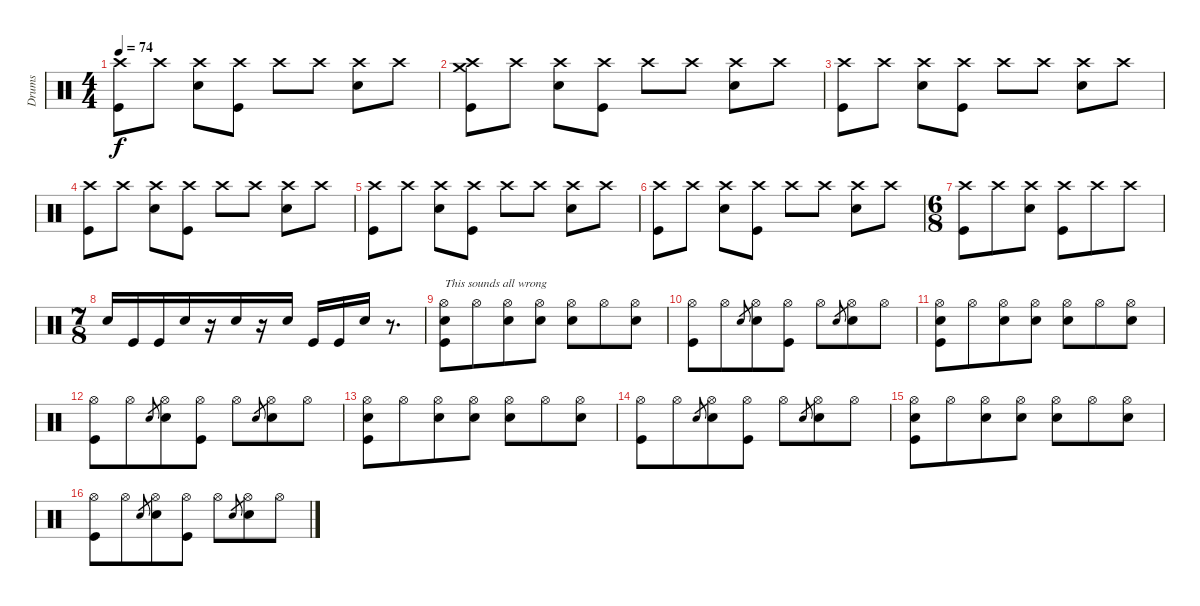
\track ("Drums" "Drums") {instrument percussion}
\staff {score}
\articulation defaults
\ts (4 4)
\tempo 74
\clef neutral
\ks c
("Crash high (hit)" "Kick (hit)").8{dy f} "Crash high (hit)".8 ("Crash high (hit)" "Snare (hit) 2").8 ("Crash high (hit)" "Kick (hit)").8 "Crash high (hit)".8 "Crash high (hit)".8 ("Crash high (hit)" "Snare (hit) 2").8 "Crash high (hit)".8 |
("Crash high (hit)" "Crash medium (hit)" "Kick (hit)").8 "Crash high (hit)".8 ("Crash high (hit)" "Snare (hit) 2").8 ("Crash high (hit)" "Kick (hit)").8 "Crash high (hit)".8 "Crash high (hit)".8 ("Crash high (hit)" "Snare (hit) 2").8 "Crash high (hit)".8 |
("Crash high (hit)" "Kick (hit)").8 "Crash high (hit)".8 ("Crash high (hit)" "Snare (hit) 2").8 ("Crash high (hit)" "Kick (hit)").8 "Crash high (hit)".8 "Crash high (hit)".8 ("Crash high (hit)" "Snare (hit) 2").8 "Crash high (hit)".8 |
("Crash high (hit)" "Kick (hit)").8 "Crash high (hit)".8 ("Crash high (hit)" "Snare (hit) 2").8 ("Crash high (hit)" "Kick (hit)").8 "Crash high (hit)".8 "Crash high (hit)".8 ("Crash high (hit)" "Snare (hit) 2").8 "Crash high (hit)".8 |
("Crash high (hit)" "Kick (hit)").8 "Crash high (hit)".8 ("Crash high (hit)" "Snare (hit) 2").8 ("Crash high (hit)" "Kick (hit)").8 "Crash high (hit)".8 "Crash high (hit)".8 ("Crash high (hit)" "Snare (hit) 2").8 "Crash high (hit)".8 |
("Crash high (hit)" "Kick (hit)").8 "Crash high (hit)".8 ("Crash high (hit)" "Snare (hit) 2").8 ("Crash high (hit)" "Kick (hit)").8 "Crash high (hit)".8 "Crash high (hit)".8 ("Crash high (hit)" "Snare (hit) 2").8 "Crash high (hit)".8 |
\ts (6 8)
("Crash high (hit)" "Kick (hit)").8 "Crash high (hit)".8 ("Crash high (hit)" "Snare (hit) 2").8 ("Crash high (hit)" "Kick (hit)").8 "Crash high (hit)".8 "Crash high (hit)".8 |
\ts (7 8)
"Snare (hit) 2".16 "Kick (hit)".16 "Kick (hit)".16 "Snare (hit) 2".16 r.16 "Snare (hit) 2".16 r.16 "Snare (hit) 2".16 "Kick (hit)".16 "Kick (hit)".16 "Snare (hit) 2".16 r.8{d} |
("Hi-Hat (open)" "Snare (hit) 2" "Kick (hit)").8{txt "This sounds all wrong"} "Hi-Hat (open)".8 ("Hi-Hat (open)" "Snare (hit) 2").8 ("Hi-Hat (open)" "Snare (hit) 2").8 ("Hi-Hat (open)" "Snare (hit) 2").8 "Hi-Hat (open)".8 ("Hi-Hat (open)" "Snare (hit) 2").8 |
("Hi-Hat (open)" "Kick (hit)").8 "Hi-Hat (open)".8 "Snare (hit) 2".8{gr} ("Hi-Hat (open)" "Snare (hit) 2").8 ("Hi-Hat (open)" "Kick (hit)").8 "Hi-Hat (open)".8 "Snare (hit) 2".8{gr} ("Hi-Hat (open)" "Snare (hit) 2").8 "Hi-Hat (open)".8 |
("Hi-Hat (open)" "Snare (hit) 2" "Kick (hit)").8 "Hi-Hat (open)".8 ("Hi-Hat (open)" "Snare (hit) 2").8 ("Hi-Hat (open)" "Snare (hit) 2").8 ("Hi-Hat (open)" "Snare (hit) 2").8 "Hi-Hat (open)".8 ("Hi-Hat (open)" "Snare (hit) 2").8 |
("Hi-Hat (open)" "Kick (hit)").8 "Hi-Hat (open)".8 "Snare (hit) 2".8{gr} ("Hi-Hat (open)" "Snare (hit) 2").8 ("Hi-Hat (open)" "Kick (hit)").8 "Hi-Hat (open)".8 "Snare (hit) 2".8{gr} ("Hi-Hat (open)" "Snare (hit) 2").8 "Hi-Hat (open)".8 |
("Hi-Hat (open)" "Snare (hit) 2" "Kick (hit)").8 "Hi-Hat (open)".8 ("Hi-Hat (open)" "Snare (hit) 2").8 ("Hi-Hat (open)" "Snare (hit) 2").8 ("Hi-Hat (open)" "Snare (hit) 2").8 "Hi-Hat (open)".8 ("Hi-Hat (open)" "Snare (hit) 2").8 |
("Hi-Hat (open)" "Kick (hit)").8 "Hi-Hat (open)".8 "Snare (hit) 2".8{gr} ("Hi-Hat (open)" "Snare (hit) 2").8 ("Hi-Hat (open)" "Kick (hit)").8 "Hi-Hat (open)".8 "Snare (hit) 2".8{gr} ("Hi-Hat (open)" "Snare (hit) 2").8 "Hi-Hat (open)".8 |
("Hi-Hat (open)" "Snare (hit) 2" "Kick (hit)").8 "Hi-Hat (open)".8 ("Hi-Hat (open)" "Snare (hit) 2").8 ("Hi-Hat (open)" "Snare (hit) 2").8 ("Hi-Hat (open)" "Snare (hit) 2").8 "Hi-Hat (open)".8 ("Hi-Hat (open)" "Snare (hit) 2").8 |
("Hi-Hat (open)" "Kick (hit)").8 "Hi-Hat (open)".8 "Snare (hit) 2".8{gr} ("Hi-Hat (open)" "Snare (hit) 2").8 ("Hi-Hat (open)" "Kick (hit)").8 "Hi-Hat (open)".8 "Snare (hit) 2".8{gr} ("Hi-Hat (open)" "Snare (hit) 2").8 "Hi-Hat (open)".8
